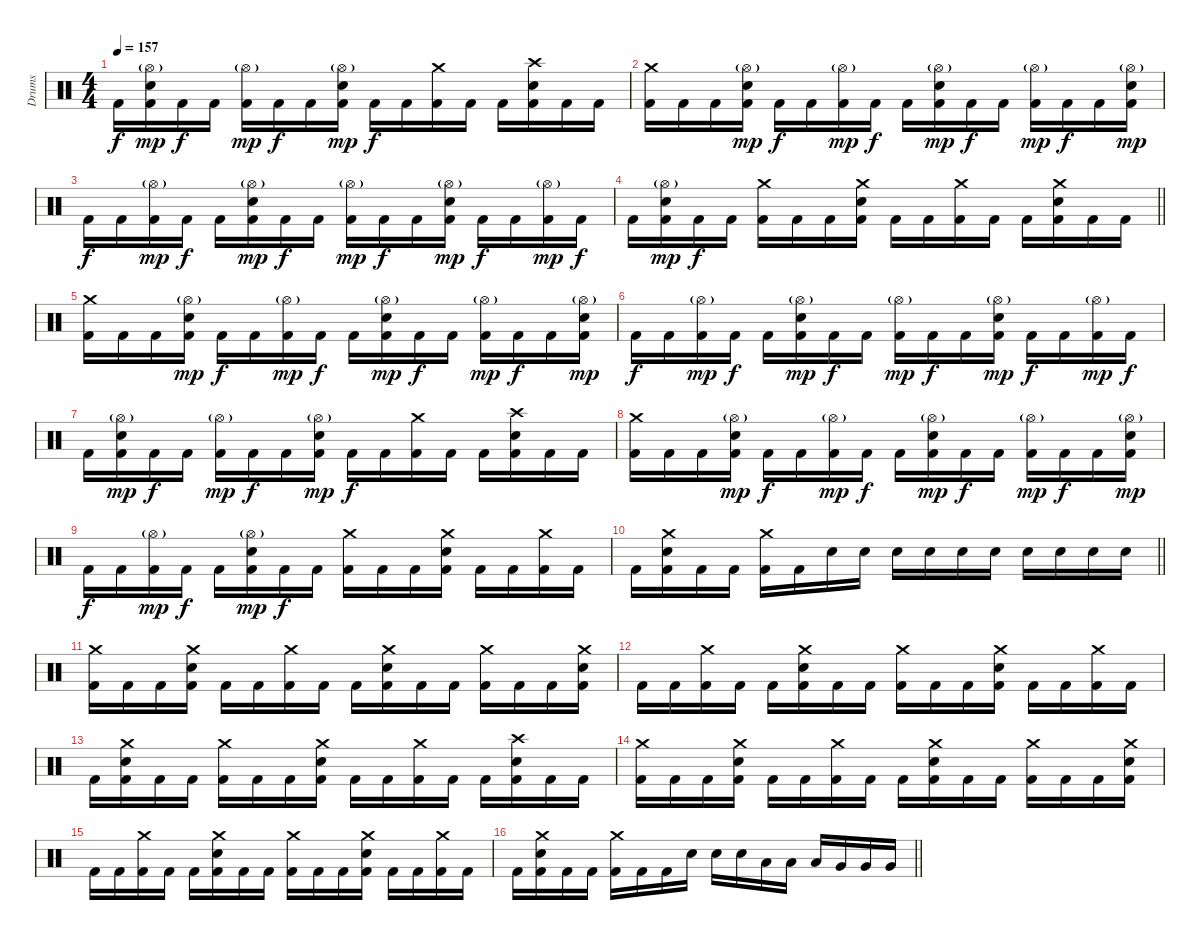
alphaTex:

\track ("Drums" "Drums") {instrument percussion}
\staff {score}
\articulation defaults
\ts (4 4)
\tempo 157
\clef neutral
\ks c "Kick (hit) 2".16{dy f}
("Snare (hit) 2" "Hi-Hat (open)"{g} "Kick (hit) 2").16{dy mp} "Kick (hit) 2".16{dy f} "Kick (hit) 2".16 ("Hi-Hat (open)"{g} "Kick (hit) 2").16{dy mp} "Kick (hit) 2".16{dy f} "Kick (hit) 2".16 ("Snare (hit) 2" "Hi-Hat (open)"{g} "Kick (hit) 2").16{dy mp} "Kick (hit) 2".16{dy f} "Kick (hit) 2".16 ("Crash medium (hit)" "Kick (hit) 2").16 "Kick (hit) 2".16 "Kick (hit) 2".16 ("Crash high (hit)" "Snare (hit) 2" "Kick (hit) 2").16 "Kick (hit) 2".16 "Kick (hit) 2".16 |
("Crash medium (hit)" "Kick (hit) 2").16 "Kick (hit) 2".16 "Kick (hit) 2".16 ("Snare (hit) 2" "Hi-Hat (open)"{g} "Kick (hit) 2").16{dy mp} "Kick (hit) 2".16{dy f} "Kick (hit) 2".16 ("Hi-Hat (open)"{g} "Kick (hit) 2").16{dy mp} "Kick (hit) 2".16{dy f} "Kick (hit) 2".16 ("Snare (hit) 2" "Hi-Hat (open)"{g} "Kick (hit) 2").16{dy mp} "Kick (hit) 2".16{dy f} "Kick (hit) 2".16 ("Hi-Hat (open)"{g} "Kick (hit) 2").16{dy mp} "Kick (hit) 2".16{dy f} "Kick (hit) 2".16 ("Snare (hit) 2" "Hi-Hat (open)"{g} "Kick (hit) 2").16{dy mp} |
"Kick (hit) 2".16{dy f} "Kick (hit) 2".16 ("Hi-Hat (open)"{g} "Kick (hit) 2").16{dy mp} "Kick (hit) 2".16{dy f} "Kick (hit) 2".16 ("Snare (hit) 2" "Hi-Hat (open)"{g} "Kick (hit) 2").16{dy mp} "Kick (hit) 2".16{dy f} "Kick (hit) 2".16 ("Hi-Hat (open)"{g} "Kick (hit) 2").16{dy mp} "Kick (hit) 2".16{dy f} "Kick (hit) 2".16 ("Snare (hit) 2" "Hi-Hat (open)"{g} "Kick (hit) 2").16{dy mp} "Kick (hit) 2".16{dy f} "Kick (hit) 2".16 ("Hi-Hat (open)"{g} "Kick (hit) 2").16{dy mp} "Kick (hit) 2".16{dy f} |
\barLineRight lightlight "Kick (hit) 2".16
("Snare (hit) 2" "Hi-Hat (open)"{g} "Kick (hit) 2").16{dy mp} "Kick (hit) 2".16{dy f} "Kick (hit) 2".16 ("Crash medium (hit)" "Kick (hit) 2").16 "Kick (hit) 2".16 "Kick (hit) 2".16 ("Crash medium (hit)" "Snare (hit) 2" "Kick (hit) 2").16 "Kick (hit) 2".16 "Kick (hit) 2".16 ("Crash medium (hit)" "Kick (hit) 2").16 "Kick (hit) 2".16 "Kick (hit) 2".16 ("Crash medium (hit)" "Snare (hit) 2" "Kick (hit) 2").16 "Kick (hit) 2".16 "Kick (hit) 2".16 |
("Crash medium (hit)" "Kick (hit) 2").16 "Kick (hit) 2".16 "Kick (hit) 2".16 ("Snare (hit) 2" "Hi-Hat (open)"{g} "Kick (hit) 2").16{dy mp} "Kick (hit) 2".16{dy f} "Kick (hit) 2".16 ("Hi-Hat (open)"{g} "Kick (hit) 2").16{dy mp} "Kick (hit) 2".16{dy f} "Kick (hit) 2".16 ("Snare (hit) 2" "Hi-Hat (open)"{g} "Kick (hit) 2").16{dy mp} "Kick (hit) 2".16{dy f} "Kick (hit) 2".16 ("Hi-Hat (open)"{g} "Kick (hit) 2").16{dy mp} "Kick (hit) 2".16{dy f} "Kick (hit) 2".16 ("Snare (hit) 2" "Hi-Hat (open)"{g} "Kick (hit) 2").16{dy mp} |
"Kick (hit) 2".16{dy f} "Kick (hit) 2".16 ("Hi-Hat (open)"{g} "Kick (hit) 2").16{dy mp} "Kick (hit) 2".16{dy f} "Kick (hit) 2".16 ("Snare (hit) 2" "Hi-Hat (open)"{g} "Kick (hit) 2").16{dy mp} "Kick (hit) 2".16{dy f} "Kick (hit) 2".16 ("Hi-Hat (open)"{g} "Kick (hit) 2").16{dy mp} "Kick (hit) 2".16{dy f} "Kick (hit) 2".16 ("Snare (hit) 2" "Hi-Hat (open)"{g} "Kick (hit) 2").16{dy mp} "Kick (hit) 2".16{dy f} "Kick (hit) 2".16 ("Hi-Hat (open)"{g} "Kick (hit) 2").16{dy mp} "Kick (hit) 2".16{dy f} |
"Kick (hit) 2".16 ("Snare (hit) 2" "Hi-Hat (open)"{g} "Kick (hit) 2").16{dy mp} "Kick (hit) 2".16{dy f} "Kick (hit) 2".16 ("Hi-Hat (open)"{g} "Kick (hit) 2").16{dy mp} "Kick (hit) 2".16{dy f} "Kick (hit) 2".16 ("Snare (hit) 2" "Hi-Hat (open)"{g} "Kick (hit) 2").16{dy mp} "Kick (hit) 2".16{dy f} "Kick (hit) 2".16 ("Crash medium (hit)" "Kick (hit) 2").16 "Kick (hit) 2".16 "Kick (hit) 2".16 ("Crash high (hit)" "Snare (hit) 2" "Kick (hit) 2").16 "Kick (hit) 2".16 "Kick (hit) 2".16 |
("Crash medium (hit)" "Kick (hit) 2").16 "Kick (hit) 2".16 "Kick (hit) 2".16 ("Snare (hit) 2" "Hi-Hat (open)"{g} "Kick (hit) 2").16{dy mp} "Kick (hit) 2".16{dy f} "Kick (hit) 2".16 ("Hi-Hat (open)"{g} "Kick (hit) 2").16{dy mp} "Kick (hit) 2".16{dy f} "Kick (hit) 2".16 ("Snare (hit) 2" "Hi-Hat (open)"{g} "Kick (hit) 2").16{dy mp} "Kick (hit) 2".16{dy f} "Kick (hit) 2".16 ("Hi-Hat (open)"{g} "Kick (hit) 2").16{dy mp} "Kick (hit) 2".16{dy f} "Kick (hit) 2".16 ("Snare (hit) 2" "Hi-Hat (open)"{g} "Kick (hit) 2").16{dy mp} |
"Kick (hit) 2".16{dy f} "Kick (hit) 2".16 ("Hi-Hat (open)"{g} "Kick (hit) 2").16{dy mp} "Kick (hit) 2".16{dy f} "Kick (hit) 2".16 ("Snare (hit) 2" "Hi-Hat (open)"{g} "Kick (hit) 2").16{dy mp} "Kick (hit) 2".16{dy f} "Kick (hit) 2".16 ("Crash medium (hit)" "Kick (hit) 2").16 "Kick (hit) 2".16 "Kick (hit) 2".16 ("Crash medium (hit)" "Snare (hit) 2" "Kick (hit) 2").16 "Kick (hit) 2".16 "Kick (hit) 2".16 ("Crash medium (hit)" "Kick (hit) 2").16 "Kick (hit) 2".16 |
\barLineRight lightlight "Kick (hit) 2".16
("Crash medium (hit)" "Snare (hit) 2" "Kick (hit) 2").16 "Kick (hit) 2".16 "Kick (hit) 2".16 ("Crash medium (hit)" "Kick (hit) 2").16 "Kick (hit) 2".16 "Snare (hit) 2".16 "Snare (hit) 2".16 "Snare (hit) 2".16 "Snare (hit) 2".16 "Snare (hit) 2".16 "Snare (hit) 2".16 "Snare (hit) 2".16 "Snare (hit) 2".16 "Snare (hit) 2".16 "Snare (hit) 2".16 |
("Crash medium (hit)" "Kick (hit) 2").16 "Kick (hit) 2".16 "Kick (hit) 2".16 ("Crash medium (hit)" "Snare (hit) 2" "Kick (hit) 2").16 "Kick (hit) 2".16 "Kick (hit) 2".16 ("Crash medium (hit)" "Kick (hit) 2").16 "Kick (hit) 2".16 "Kick (hit) 2".16 ("Crash medium (hit)" "Snare (hit) 2" "Kick (hit) 2").16 "Kick (hit) 2".16 "Kick (hit) 2".16 ("Crash medium (hit)" "Kick (hit) 2").16 "Kick (hit) 2".16 "Kick (hit) 2".16 ("Crash medium (hit)" "Snare (hit) 2" "Kick (hit) 2").16 |
"Kick (hit) 2".16 "Kick (hit) 2".16 ("Crash medium (hit)" "Kick (hit) 2").16 "Kick (hit) 2".16 "Kick (hit) 2".16 ("Crash medium (hit)" "Snare (hit) 2" "Kick (hit) 2").16 "Kick (hit) 2".16 "Kick (hit) 2".16 ("Crash medium (hit)" "Kick (hit) 2").16 "Kick (hit) 2".16 "Kick (hit) 2".16 ("Crash medium (hit)" "Snare (hit) 2" "Kick (hit) 2").16 "Kick (hit) 2".16 "Kick (hit) 2".16 ("Crash medium (hit)" "Kick (hit) 2").16 "Kick (hit) 2".16 |
"Kick (hit) 2".16 ("Crash medium (hit)" "Snare (hit) 2" "Kick (hit) 2").16 "Kick (hit) 2".16 "Kick (hit) 2".16 ("Crash medium (hit)" "Kick (hit) 2").16 "Kick (hit) 2".16 "Kick (hit) 2".16 ("Crash medium (hit)" "Snare (hit) 2" "Kick (hit) 2").16 "Kick (hit) 2".16 "Kick (hit) 2".16 ("Crash medium (hit)" "Kick (hit) 2").16 "Kick (hit) 2".16 "Kick (hit) 2".16 ("Crash high (hit)" "Snare (hit) 2" "Kick (hit) 2").16 "Kick (hit) 2".16 "Kick (hit) 2".16 |
("Crash medium (hit)" "Kick (hit) 2").16 "Kick (hit) 2".16 "Kick (hit) 2".16 ("Crash medium (hit)" "Snare (hit) 2" "Kick (hit) 2").16 "Kick (hit) 2".16 "Kick (hit) 2".16 ("Crash medium (hit)" "Kick (hit) 2").16 "Kick (hit) 2".16 "Kick (hit) 2".16 ("Crash medium (hit)" "Snare (hit) 2" "Kick (hit) 2").16 "Kick (hit) 2".16 "Kick (hit) 2".16 ("Crash medium (hit)" "Kick (hit) 2").16 "Kick (hit) 2".16 "Kick (hit) 2".16 ("Crash medium (hit)" "Snare (hit) 2" "Kick (hit) 2").16 |
"Kick (hit) 2".16 "Kick (hit) 2".16 ("Crash medium (hit)" "Kick (hit) 2").16 "Kick (hit) 2".16 "Kick (hit) 2".16 ("Crash medium (hit)" "Snare (hit) 2" "Kick (hit) 2").16 "Kick (hit) 2".16 "Kick (hit) 2".16 ("Crash medium (hit)" "Kick (hit) 2").16 "Kick (hit) 2".16 "Kick (hit) 2".16 ("Crash medium (hit)" "Snare (hit) 2" "Kick (hit) 2").16 "Kick (hit) 2".16 "Kick (hit) 2".16 ("Crash medium (hit)" "Kick (hit) 2").16 "Kick (hit) 2".16 |
\barLineRight lightlight "Kick (hit) 2".16
("Crash medium (hit)" "Snare (hit) 2" "Kick (hit) 2").16 "Kick (hit) 2".16 "Kick (hit) 2".16 ("Crash medium (hit)" "Kick (hit) 2").16 "Kick (hit) 2".16 "Kick (hit) 2".16 "Snare (hit) 2".16 "Snare (hit) 2".16 "Snare (hit) 2".16 "Low Tom (hit)".16 "Low Tom (hit)".16 "Low Tom (hit)".16 "Very Low Tom (hit)".16 "Very Low Tom (hit)".16 "Very Low Tom (hit)".16
